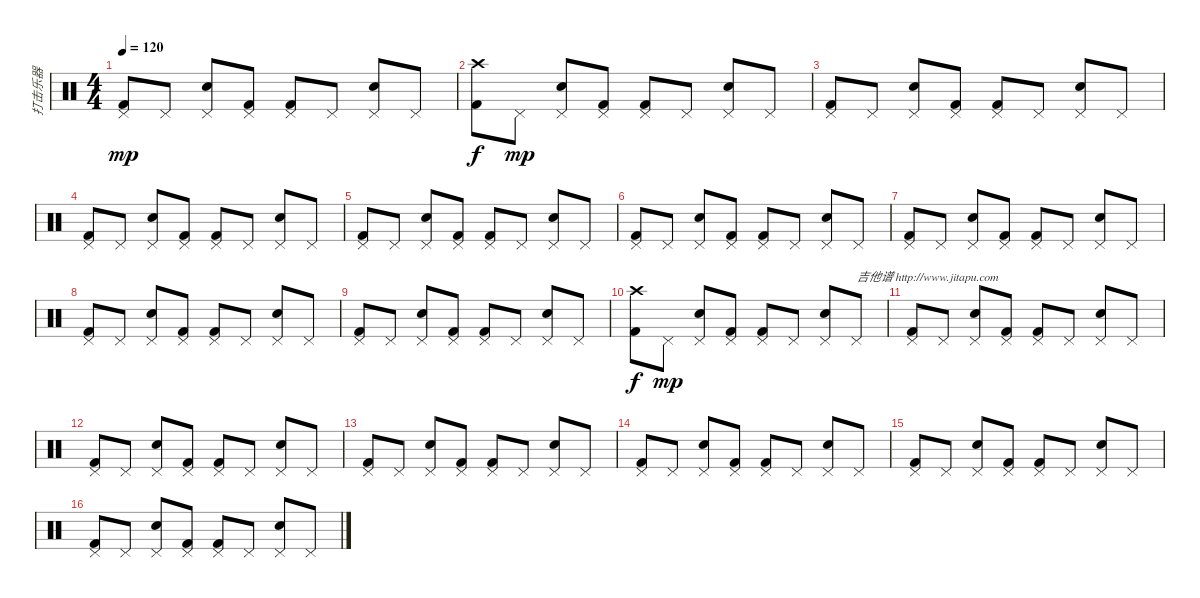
\track ("打击乐器" "打击乐器") {instrument percussion}
\staff {score}
\articulation defaults
\ts (4 4)
\tempo 120
\clef neutral
\ks c
("Pedal Hi-Hat (hit)" "Kick (hit) 2").8{dy mp} "Pedal Hi-Hat (hit)".8 ("Pedal Hi-Hat (hit)" "Electric Snare (hit)").8 ("Pedal Hi-Hat (hit)" "Kick (hit) 2").8 ("Pedal Hi-Hat (hit)" "Kick (hit) 2").8 "Pedal Hi-Hat (hit)".8 ("Pedal Hi-Hat (hit)" "Electric Snare (hit)").8 "Pedal Hi-Hat (hit)".8 |
("Crash high (hit)" "Kick (hit) 2").8{dy f} "Pedal Hi-Hat (hit)".8{dy mp} ("Pedal Hi-Hat (hit)" "Electric Snare (hit)").8 ("Pedal Hi-Hat (hit)" "Kick (hit) 2").8 ("Pedal Hi-Hat (hit)" "Kick (hit) 2").8 "Pedal Hi-Hat (hit)".8 ("Pedal Hi-Hat (hit)" "Electric Snare (hit)").8 "Pedal Hi-Hat (hit)".8 |
("Pedal Hi-Hat (hit)" "Kick (hit) 2").8 "Pedal Hi-Hat (hit)".8 ("Pedal Hi-Hat (hit)" "Electric Snare (hit)").8 ("Pedal Hi-Hat (hit)" "Kick (hit) 2").8 ("Pedal Hi-Hat (hit)" "Kick (hit) 2").8 "Pedal Hi-Hat (hit)".8 ("Pedal Hi-Hat (hit)" "Electric Snare (hit)").8 "Pedal Hi-Hat (hit)".8 |
("Pedal Hi-Hat (hit)" "Kick (hit) 2").8 "Pedal Hi-Hat (hit)".8 ("Pedal Hi-Hat (hit)" "Electric Snare (hit)").8 ("Pedal Hi-Hat (hit)" "Kick (hit) 2").8 ("Pedal Hi-Hat (hit)" "Kick (hit) 2").8 "Pedal Hi-Hat (hit)".8 ("Pedal Hi-Hat (hit)" "Electric Snare (hit)").8 "Pedal Hi-Hat (hit)".8 |
("Pedal Hi-Hat (hit)" "Kick (hit) 2").8 "Pedal Hi-Hat (hit)".8 ("Pedal Hi-Hat (hit)" "Electric Snare (hit)").8 ("Pedal Hi-Hat (hit)" "Kick (hit) 2").8 ("Pedal Hi-Hat (hit)" "Kick (hit) 2").8 "Pedal Hi-Hat (hit)".8 ("Pedal Hi-Hat (hit)" "Electric Snare (hit)").8 "Pedal Hi-Hat (hit)".8 |
("Pedal Hi-Hat (hit)" "Kick (hit) 2").8 "Pedal Hi-Hat (hit)".8 ("Pedal Hi-Hat (hit)" "Electric Snare (hit)").8 ("Pedal Hi-Hat (hit)" "Kick (hit) 2").8 ("Pedal Hi-Hat (hit)" "Kick (hit) 2").8 "Pedal Hi-Hat (hit)".8 ("Pedal Hi-Hat (hit)" "Electric Snare (hit)").8 "Pedal Hi-Hat (hit)".8 |
("Pedal Hi-Hat (hit)" "Kick (hit) 2").8 "Pedal Hi-Hat (hit)".8 ("Pedal Hi-Hat (hit)" "Electric Snare (hit)").8 ("Pedal Hi-Hat (hit)" "Kick (hit) 2").8 ("Pedal Hi-Hat (hit)" "Kick (hit) 2").8 "Pedal Hi-Hat (hit)".8 ("Pedal Hi-Hat (hit)" "Electric Snare (hit)").8 "Pedal Hi-Hat (hit)".8 |
("Pedal Hi-Hat (hit)" "Kick (hit) 2").8 "Pedal Hi-Hat (hit)".8 ("Pedal Hi-Hat (hit)" "Electric Snare (hit)").8 ("Pedal Hi-Hat (hit)" "Kick (hit) 2").8 ("Pedal Hi-Hat (hit)" "Kick (hit) 2").8 "Pedal Hi-Hat (hit)".8 ("Pedal Hi-Hat (hit)" "Electric Snare (hit)").8 "Pedal Hi-Hat (hit)".8 |
("Pedal Hi-Hat (hit)" "Kick (hit) 2").8 "Pedal Hi-Hat (hit)".8 ("Pedal Hi-Hat (hit)" "Electric Snare (hit)").8 ("Pedal Hi-Hat (hit)" "Kick (hit) 2").8 ("Pedal Hi-Hat (hit)" "Kick (hit) 2").8 "Pedal Hi-Hat (hit)".8 ("Pedal Hi-Hat (hit)" "Electric Snare (hit)").8 "Pedal Hi-Hat (hit)".8 |
("Crash high (hit)" "Kick (hit) 2").8{dy f} "Pedal Hi-Hat (hit)".8{dy mp} ("Pedal Hi-Hat (hit)" "Electric Snare (hit)").8 ("Pedal Hi-Hat (hit)" "Kick (hit) 2").8 ("Pedal Hi-Hat (hit)" "Kick (hit) 2").8 "Pedal Hi-Hat (hit)".8 ("Pedal Hi-Hat (hit)" "Electric Snare (hit)").8 "Pedal Hi-Hat (hit)".8{txt "吉他谱 http://www.jitapu.com"} |
("Pedal Hi-Hat (hit)" "Kick (hit) 2").8 "Pedal Hi-Hat (hit)".8 ("Pedal Hi-Hat (hit)" "Electric Snare (hit)").8 ("Pedal Hi-Hat (hit)" "Kick (hit) 2").8 ("Pedal Hi-Hat (hit)" "Kick (hit) 2").8 "Pedal Hi-Hat (hit)".8 ("Pedal Hi-Hat (hit)" "Electric Snare (hit)").8 "Pedal Hi-Hat (hit)".8 |
("Pedal Hi-Hat (hit)" "Kick (hit) 2").8 "Pedal Hi-Hat (hit)".8 ("Pedal Hi-Hat (hit)" "Electric Snare (hit)").8 ("Pedal Hi-Hat (hit)" "Kick (hit) 2").8 ("Pedal Hi-Hat (hit)" "Kick (hit) 2").8 "Pedal Hi-Hat (hit)".8 ("Pedal Hi-Hat (hit)" "Electric Snare (hit)").8 "Pedal Hi-Hat (hit)".8 |
("Pedal Hi-Hat (hit)" "Kick (hit) 2").8 "Pedal Hi-Hat (hit)".8 ("Pedal Hi-Hat (hit)" "Electric Snare (hit)").8 ("Pedal Hi-Hat (hit)" "Kick (hit) 2").8 ("Pedal Hi-Hat (hit)" "Kick (hit) 2").8 "Pedal Hi-Hat (hit)".8 ("Pedal Hi-Hat (hit)" "Electric Snare (hit)").8 "Pedal Hi-Hat (hit)".8 |
("Pedal Hi-Hat (hit)" "Kick (hit) 2").8 "Pedal Hi-Hat (hit)".8 ("Pedal Hi-Hat (hit)" "Electric Snare (hit)").8 ("Pedal Hi-Hat (hit)" "Kick (hit) 2").8 ("Pedal Hi-Hat (hit)" "Kick (hit) 2").8 "Pedal Hi-Hat (hit)".8 ("Pedal Hi-Hat (hit)" "Electric Snare (hit)").8 "Pedal Hi-Hat (hit)".8 |
("Pedal Hi-Hat (hit)" "Kick (hit) 2").8 "Pedal Hi-Hat (hit)".8 ("Pedal Hi-Hat (hit)" "Electric Snare (hit)").8 ("Pedal Hi-Hat (hit)" "Kick (hit) 2").8 ("Pedal Hi-Hat (hit)" "Kick (hit) 2").8 "Pedal Hi-Hat (hit)".8 ("Pedal Hi-Hat (hit)" "Electric Snare (hit)").8 "Pedal Hi-Hat (hit)".8 |
("Pedal Hi-Hat (hit)" "Kick (hit) 2").8 "Pedal Hi-Hat (hit)".8 ("Pedal Hi-Hat (hit)" "Electric Snare (hit)").8 ("Pedal Hi-Hat (hit)" "Kick (hit) 2").8 ("Pedal Hi-Hat (hit)" "Kick (hit) 2").8 "Pedal Hi-Hat (hit)".8 ("Pedal Hi-Hat (hit)" "Electric Snare (hit)").8 "Pedal Hi-Hat (hit)".8
